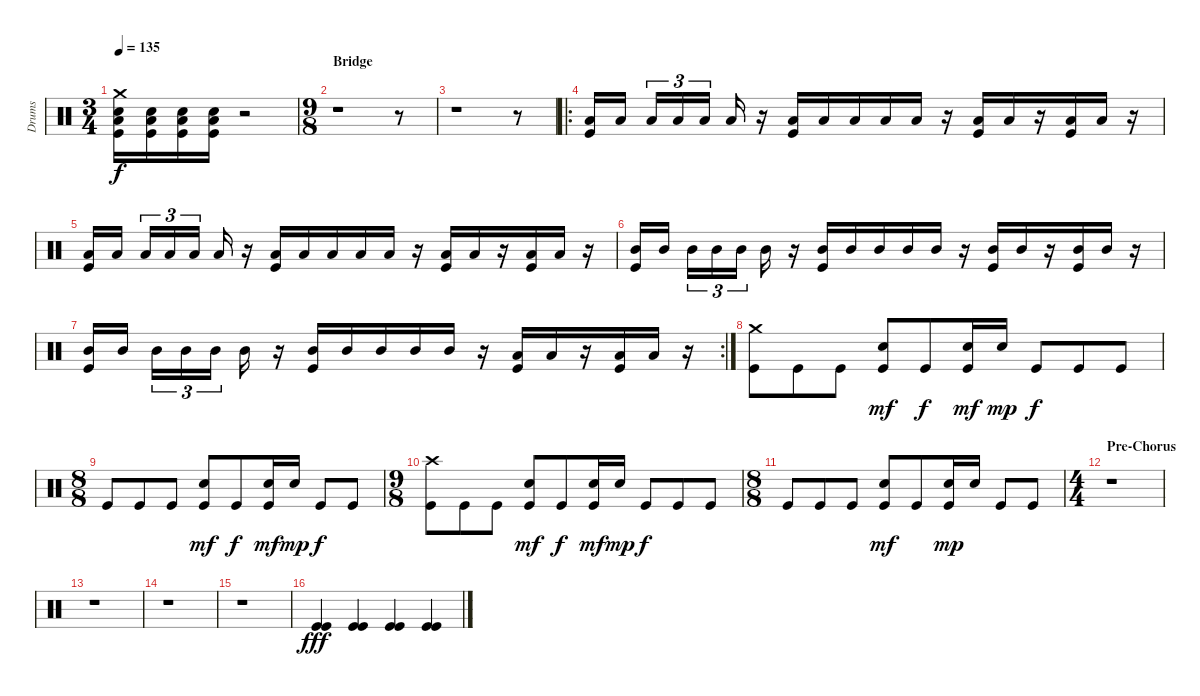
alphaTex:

\track ("Drums" "Drums") {instrument percussion}
\staff {score}
\articulation defaults
\ts (3 4)
\tempo 135
\clef neutral
\ks c
("Crash medium (hit)" "Electric Snare (hit)" "Low Tom (hit)" "Kick (hit)").16{dy f} ("Electric Snare (hit)" "Low Tom (hit)" "Kick (hit)").16 ("Electric Snare (hit)" "Low Tom (hit)" "Kick (hit)").16 ("Electric Snare (hit)" "Low Tom (hit)" "Kick (hit)").16 r.2 |
\ts (9 8)
\section ("" "Bridge")
r.1 r.8 |
r.1 r.8 |
\ro
("Low Tom (hit)" "Kick (hit)").16 "Low Tom (hit)".16 "Low Tom (hit)".16{tu (3 2)} "Low Tom (hit)".16{tu (3 2)} "Low Tom (hit)".16{tu (3 2)} "Low Tom (hit)".16 r.16 ("Low Tom (hit)" "Kick (hit)").16 "Low Tom (hit)".16 "Low Tom (hit)".16 "Low Tom (hit)".16 "Low Tom (hit)".16 r.16 ("Low Tom (hit)" "Kick (hit)").16 "Low Tom (hit)".16 r.16 ("Low Tom (hit)" "Kick (hit)").16 "Low Tom (hit)".16 r.16 |
("Low Tom (hit)" "Kick (hit)").16 "Low Tom (hit)".16 "Low Tom (hit)".16{tu (3 2)} "Low Tom (hit)".16{tu (3 2)} "Low Tom (hit)".16{tu (3 2)} "Low Tom (hit)".16 r.16 ("Low Tom (hit)" "Kick (hit)").16 "Low Tom (hit)".16 "Low Tom (hit)".16 "Low Tom (hit)".16 "Low Tom (hit)".16 r.16 ("Low Tom (hit)" "Kick (hit)").16 "Low Tom (hit)".16 r.16 ("Low Tom (hit)" "Kick (hit)").16 "Low Tom (hit)".16 r.16 |
("Mid Tom (hit)" "Kick (hit)").16 "Mid Tom (hit)".16 "Mid Tom (hit)".16{tu (3 2)} "Mid Tom (hit)".16{tu (3 2)} "Mid Tom (hit)".16{tu (3 2)} "Mid Tom (hit)".16 r.16 ("Mid Tom (hit)" "Kick (hit)").16 "Mid Tom (hit)".16 "Mid Tom (hit)".16 "Mid Tom (hit)".16 "Mid Tom (hit)".16 r.16 ("Mid Tom (hit)" "Kick (hit)").16 "Mid Tom (hit)".16 r.16 ("Mid Tom (hit)" "Kick (hit)").16 "Mid Tom (hit)".16 r.16 |
\rc 2
("Mid Tom (hit)" "Kick (hit)").16 "Mid Tom (hit)".16 "Mid Tom (hit)".16{tu (3 2)} "Mid Tom (hit)".16{tu (3 2)} "Mid Tom (hit)".16{tu (3 2)} "Mid Tom (hit)".16 r.16 ("Mid Tom (hit)" "Kick (hit)").16 "Mid Tom (hit)".16 "Mid Tom (hit)".16 "Mid Tom (hit)".16 "Mid Tom (hit)".16 r.16 ("Low Tom (hit)" "Kick (hit)").16 "Low Tom (hit)".16 r.16 ("Low Tom (hit)" "Kick (hit)").16 "Low Tom (hit)".16 r.16 |
("Crash medium (hit)" "Kick (hit)").8 "Kick (hit)".8 "Kick (hit)".8 ("Electric Snare (hit)" "Kick (hit)").8{dy mf} "Kick (hit)".8{dy f} ("Electric Snare (hit)" "Kick (hit)").16{dy mf} "Electric Snare (hit)".16{dy mp} "Kick (hit)".8{dy f} "Kick (hit)".8 "Kick (hit)".8 |
\ts (8 8)
"Kick (hit)".8 "Kick (hit)".8 "Kick (hit)".8 ("Electric Snare (hit)" "Kick (hit)").8{dy mf} "Kick (hit)".8{dy f} ("Electric Snare (hit)" "Kick (hit)").16{dy mf} "Electric Snare (hit)".16{dy mp} "Kick (hit)".8{dy f} "Kick (hit)".8 |
\ts (9 8)
("Crash high (hit)" "Kick (hit)").8 "Kick (hit)".8 "Kick (hit)".8 ("Electric Snare (hit)" "Kick (hit)").8{dy mf} "Kick (hit)".8{dy f} ("Electric Snare (hit)" "Kick (hit)").16{dy mf} "Electric Snare (hit)".16{dy mp} "Kick (hit)".8{dy f} "Kick (hit)".8 "Kick (hit)".8 |
\ts (8 8)
"Kick (hit)".8 "Kick (hit)".8 "Kick (hit)".8 ("Electric Snare (hit)" "Kick (hit)").8{dy mf} "Kick (hit)".8 ("Electric Snare (hit)" "Kick (hit)").16{dy mp} "Electric Snare (hit)".16 "Kick (hit)".8 "Kick (hit)".8 |
\ts (4 4)
\section ("" "Pre-Chorus")
r.1 |
r.1 |
r.1 |
r.1 |
("Kick (hit)" "Kick (hit)").4{dy fff} ("Kick (hit)" "Kick (hit)").4 ("Kick (hit)" "Kick (hit)").4 ("Kick (hit)" "Kick (hit)").4
